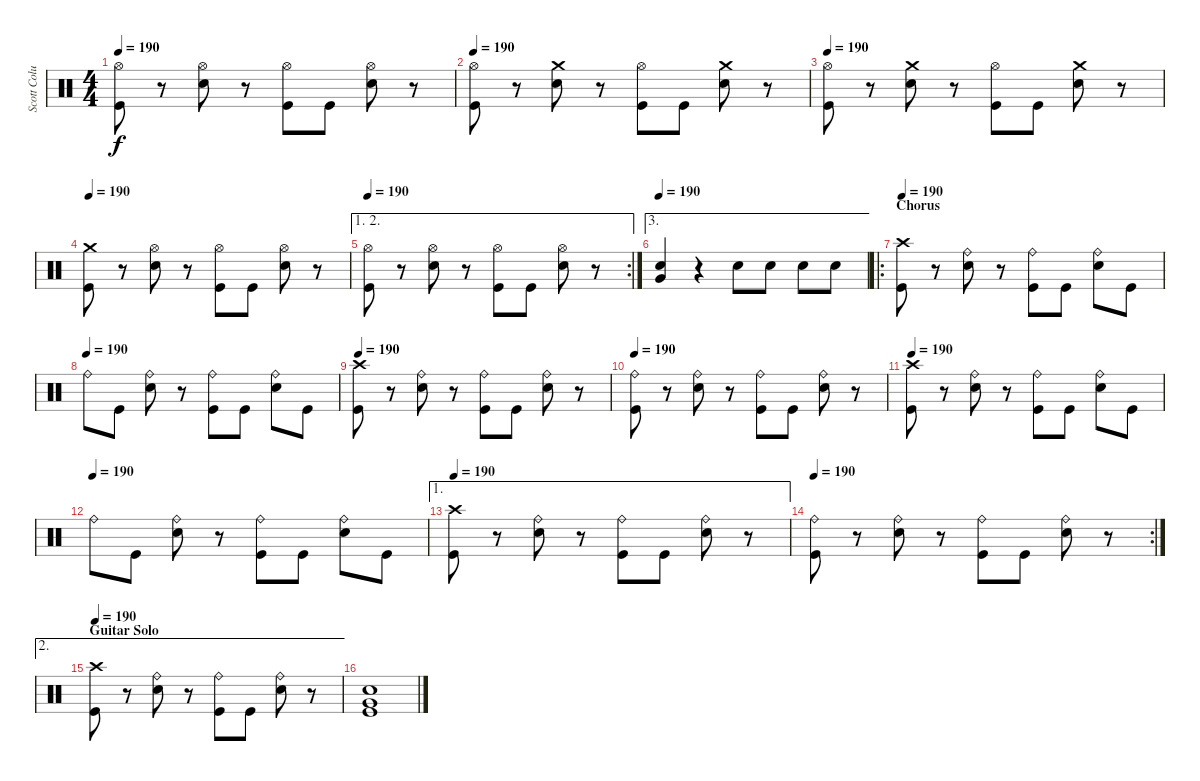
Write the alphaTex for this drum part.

\track ("Scott Columbus" "Scott Colu") {instrument percussion}
\staff {score}
\articulation defaults
\ts (4 4)
\tempo 190
\clef neutral
\ks c
("Hi-Hat (open)" "Kick (hit)").8{dy f} r.8 ("Hi-Hat (open)" "Snare (hit) 2").8 r.8 ("Hi-Hat (open)" "Kick (hit)").8 "Kick (hit)".8 ("Hi-Hat (open)" "Snare (hit) 2").8 r.8 |
\tempo 190
("Hi-Hat (open)" "Kick (hit)").8 r.8 ("Crash medium (hit)" "Snare (hit) 2").8 r.8 ("Hi-Hat (open)" "Kick (hit)").8 "Kick (hit)".8 ("Crash medium (hit)" "Snare (hit) 2").8 r.8 |
\tempo 190
("Hi-Hat (open)" "Kick (hit)").8 r.8 ("Crash medium (hit)" "Snare (hit) 2").8 r.8 ("Hi-Hat (open)" "Kick (hit)").8 "Kick (hit)".8 ("Crash medium (hit)" "Snare (hit) 2").8 r.8 |
\tempo 190
("Crash medium (hit)" "Kick (hit)").8 r.8 ("Hi-Hat (open)" "Snare (hit) 2").8 r.8 ("Hi-Hat (open)" "Kick (hit)").8 "Kick (hit)".8 ("Hi-Hat (open)" "Snare (hit) 2").8 r.8 |
\ae (1 2)
\rc 2
\tempo 190
("Hi-Hat (open)" "Kick (hit)").8 r.8 ("Hi-Hat (open)" "Snare (hit) 2").8 r.8 ("Hi-Hat (open)" "Kick (hit)").8 "Kick (hit)".8 ("Hi-Hat (open)" "Snare (hit) 2").8 r.8 |
\ae 3
\tempo 190
("Very Low Tom (hit)" "Snare (hit) 2").4 r.4 "Snare (hit) 2".8 "Snare (hit) 2".8 "Snare (hit) 2".8 "Snare (hit) 2".8 |
\ro
\section ("" "Chorus")
\tempo 190
("Crash high (hit)" "Kick (hit)").8 r.8 ("Ride (bell)" "Snare (hit) 2").8 r.8 ("Ride (bell)" "Kick (hit)").8 "Kick (hit)".8 ("Ride (bell)" "Snare (hit) 2").8 "Kick (hit)".8 |
\tempo (190)
"Ride (bell)".8 "Kick (hit)".8 ("Ride (bell)" "Snare (hit) 2").8 r.8 ("Ride (bell)" "Kick (hit)").8 "Kick (hit)".8 ("Ride (bell)" "Snare (hit) 2").8 "Kick (hit)".8 |
\tempo 190
("Crash high (hit)" "Kick (hit)").8 r.8 ("Ride (bell)" "Snare (hit) 2").8 r.8 ("Ride (bell)" "Kick (hit)").8 "Kick (hit)".8 ("Ride (bell)" "Snare (hit) 2").8 r.8 |
\tempo 190
("Ride (bell)" "Kick (hit)").8 r.8 ("Ride (bell)" "Snare (hit) 2").8 r.8 ("Ride (bell)" "Kick (hit)").8 "Kick (hit)".8 ("Ride (bell)" "Snare (hit) 2").8 r.8 |
\tempo 190
("Crash high (hit)" "Kick (hit)").8 r.8 ("Ride (bell)" "Snare (hit) 2").8 r.8 ("Ride (bell)" "Kick (hit)").8 "Kick (hit)".8 ("Ride (bell)" "Snare (hit) 2").8 "Kick (hit)".8 |
\tempo (190)
"Ride (bell)".8 "Kick (hit)".8 ("Ride (bell)" "Snare (hit) 2").8 r.8 ("Ride (bell)" "Kick (hit)").8 "Kick (hit)".8 ("Ride (bell)" "Snare (hit) 2").8 "Kick (hit)".8 |
\ae 1
\tempo 190
("Crash high (hit)" "Kick (hit)").8 r.8 ("Ride (bell)" "Snare (hit) 2").8 r.8 ("Ride (bell)" "Kick (hit)").8 "Kick (hit)".8 ("Ride (bell)" "Snare (hit) 2").8 r.8 |
\rc 2
\tempo 190
("Ride (bell)" "Kick (hit)").8 r.8 ("Ride (bell)" "Snare (hit) 2").8 r.8 ("Ride (bell)" "Kick (hit)").8 "Kick (hit)".8 ("Ride (bell)" "Snare (hit) 2").8 r.8 |
\ae 2
\section ("" "Guitar Solo")
\tempo 190
("Crash high (hit)" "Kick (hit)").8 r.8 ("Ride (bell)" "Snare (hit) 2").8 r.8 ("Ride (bell)" "Kick (hit)").8 "Kick (hit)".8 ("Ride (bell)" "Snare (hit) 2").8 r.8 |
("Very Low Tom (hit)" "Snare (hit) 2" "Kick (hit)").1
